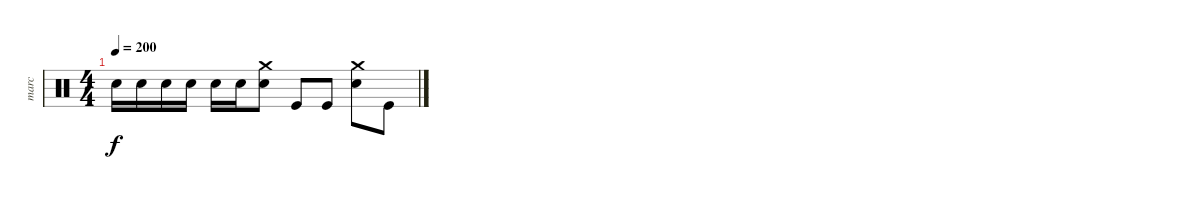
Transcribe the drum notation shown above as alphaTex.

\track ("marc" "marc") {instrument percussion}
\staff {score}
\articulation defaults
\ts (4 4)
\tempo 200
\clef neutral
\ks c "Snare (hit) 2".16{dy f} "Snare (hit) 2".16 "Snare (hit) 2".16 "Snare (hit) 2".16 "Snare (hit) 2".16 "Snare (hit) 2".16
("Crash medium (hit)" "Snare (hit) 2").8 "Kick (hit)".8 "Kick (hit)".8 ("Crash medium (hit)" "Snare (hit) 2").8 "Kick (hit)".8
